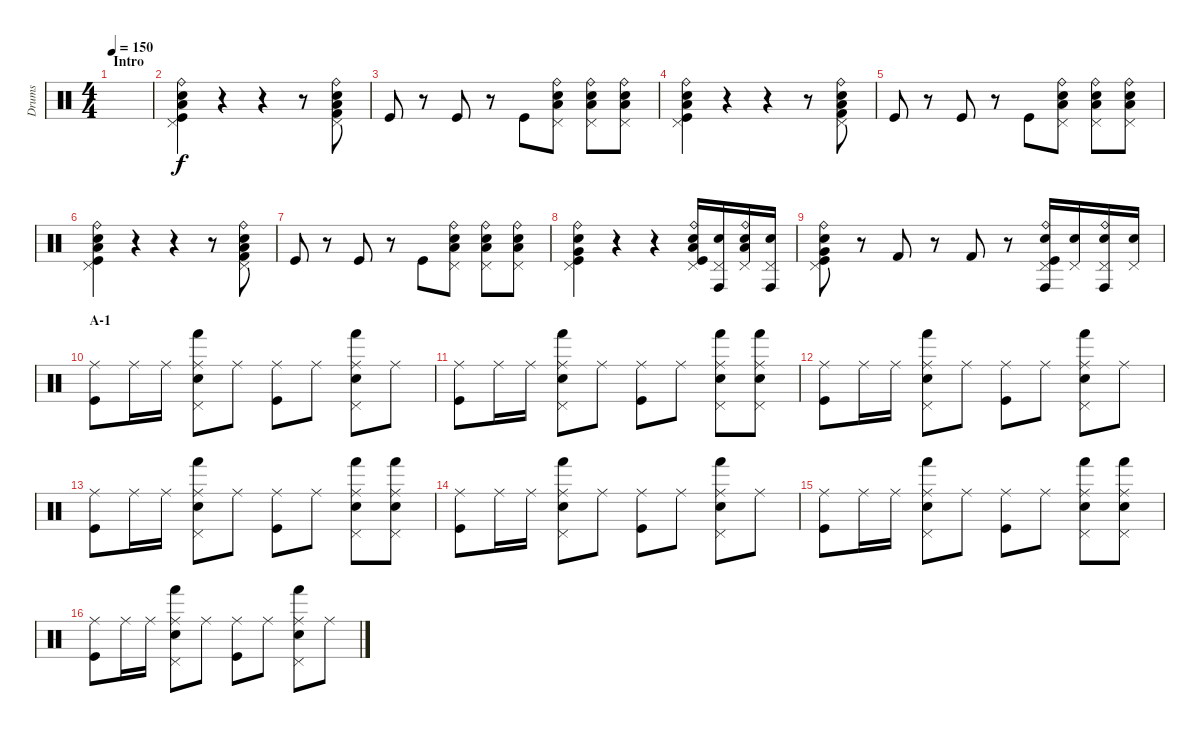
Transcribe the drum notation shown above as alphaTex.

\track ("Drums" "Drums") {instrument percussion}
\staff {score}
\articulation defaults
\ts (4 4)
\section ("" "Intro")
\tempo 150
\clef neutral
\ks c
|
("Ride (bell)" "Pedal Hi-Hat (hit)" "Low Floor Tom (hit)" "Electric Snare (hit)" "Kick (hit)").4 r.4 r.4 r.8 ("Ride (bell)" "Pedal Hi-Hat (hit)" "Low Floor Tom (hit)" "Electric Snare (hit)" "Kick (hit) 2").8 |
"Kick (hit)".8 r.8 "Kick (hit)".8 r.8 "Kick (hit)".8 ("Ride (bell)" "Pedal Hi-Hat (hit)" "Low Floor Tom (hit)" "Electric Snare (hit)").8 ("Ride (bell)" "Pedal Hi-Hat (hit)" "Low Floor Tom (hit)" "Electric Snare (hit)").8 ("Ride (bell)" "Pedal Hi-Hat (hit)" "Low Floor Tom (hit)" "Electric Snare (hit)").8 |
("Ride (bell)" "Pedal Hi-Hat (hit)" "Low Floor Tom (hit)" "Electric Snare (hit)" "Kick (hit)").4 r.4 r.4 r.8 ("Ride (bell)" "Pedal Hi-Hat (hit)" "Low Floor Tom (hit)" "Electric Snare (hit)" "Kick (hit) 2").8 |
"Kick (hit)".8 r.8 "Kick (hit)".8 r.8 "Kick (hit)".8 ("Ride (bell)" "Pedal Hi-Hat (hit)" "Low Floor Tom (hit)" "Electric Snare (hit)").8 ("Ride (bell)" "Pedal Hi-Hat (hit)" "Low Floor Tom (hit)" "Electric Snare (hit)").8 ("Ride (bell)" "Pedal Hi-Hat (hit)" "Low Floor Tom (hit)" "Electric Snare (hit)").8 |
("Ride (bell)" "Pedal Hi-Hat (hit)" "Low Floor Tom (hit)" "Electric Snare (hit)" "Kick (hit)").4 r.4 r.4 r.8 ("Ride (bell)" "Pedal Hi-Hat (hit)" "Low Floor Tom (hit)" "Electric Snare (hit)" "Kick (hit) 2").8 |
"Kick (hit)".8 r.8 "Kick (hit)".8 r.8 "Kick (hit)".8 ("Ride (bell)" "Pedal Hi-Hat (hit)" "Low Floor Tom (hit)" "Electric Snare (hit)").8 ("Ride (bell)" "Pedal Hi-Hat (hit)" "Low Floor Tom (hit)" "Electric Snare (hit)").8 ("Ride (bell)" "Pedal Hi-Hat (hit)" "Low Floor Tom (hit)" "Electric Snare (hit)").8 |
("Ride (bell)" "Pedal Hi-Hat (hit)" "Very Low Tom (hit)" "Electric Snare (hit)" "Kick (hit)").4 r.4 r.4 ("Ride (bell)" "Pedal Hi-Hat (hit)" "Low Floor Tom (hit)" "Electric Snare (hit)" "Kick (hit)").16 ("Pedal Hi-Hat (hit)" "Conga high (hit)" "Electric Snare (hit)").16 ("Ride (bell)" "Pedal Hi-Hat (hit)" "Low Floor Tom (hit)" "Electric Snare (hit)").16 ("Pedal Hi-Hat (hit)" "Conga high (hit)" "Electric Snare (hit)").16 |
("Ride (bell)" "Pedal Hi-Hat (hit)" "Very Low Tom (hit)" "Electric Snare (hit)" "Kick (hit)").8 r.8 "Kick (hit) 2".8 r.8 "Kick (hit) 2".8 r.8 ("Ride (bell)" "Pedal Hi-Hat (hit)" "Conga high (hit)" "Electric Snare (hit)" "Kick (hit)").16 ("Pedal Hi-Hat (hit)" "Electric Snare (hit)").16 ("Ride (bell)" "Pedal Hi-Hat (hit)" "Conga high (hit)" "Electric Snare (hit)").16 ("Pedal Hi-Hat (hit)" "Electric Snare (hit)").16 |
\section ("" "A-1")
("Ride (middle)" "Kick (hit)").8 "Ride (middle)".16 "Ride (middle)".16 ("Ride (middle)" "Pedal Hi-Hat (hit)" "Hand (hit)" "Electric Snare (hit)").8 "Ride (middle)".8 ("Ride (middle)" "Kick (hit)").8 "Ride (middle)".8 ("Ride (middle)" "Pedal Hi-Hat (hit)" "Hand (hit)" "Electric Snare (hit)").8 "Ride (middle)".8 |
("Ride (middle)" "Kick (hit)").8 "Ride (middle)".16 "Ride (middle)".16 ("Ride (middle)" "Pedal Hi-Hat (hit)" "Hand (hit)" "Electric Snare (hit)").8 "Ride (middle)".8 ("Ride (middle)" "Kick (hit)").8 "Ride (middle)".8 ("Ride (middle)" "Pedal Hi-Hat (hit)" "Hand (hit)" "Electric Snare (hit)").8 ("Ride (middle)" "Pedal Hi-Hat (hit)" "Hand (hit)" "Electric Snare (hit)").8 |
("Ride (middle)" "Kick (hit)").8 "Ride (middle)".16 "Ride (middle)".16 ("Ride (middle)" "Pedal Hi-Hat (hit)" "Hand (hit)" "Electric Snare (hit)").8 "Ride (middle)".8 ("Ride (middle)" "Kick (hit)").8 "Ride (middle)".8 ("Ride (middle)" "Pedal Hi-Hat (hit)" "Hand (hit)" "Electric Snare (hit)").8 "Ride (middle)".8 |
("Ride (middle)" "Kick (hit)").8 "Ride (middle)".16 "Ride (middle)".16 ("Ride (middle)" "Pedal Hi-Hat (hit)" "Hand (hit)" "Electric Snare (hit)").8 "Ride (middle)".8 ("Ride (middle)" "Kick (hit)").8 "Ride (middle)".8 ("Ride (middle)" "Pedal Hi-Hat (hit)" "Hand (hit)" "Electric Snare (hit)").8 ("Ride (middle)" "Pedal Hi-Hat (hit)" "Hand (hit)" "Electric Snare (hit)").8 |
("Ride (middle)" "Kick (hit)").8 "Ride (middle)".16 "Ride (middle)".16 ("Ride (middle)" "Pedal Hi-Hat (hit)" "Hand (hit)" "Electric Snare (hit)").8 "Ride (middle)".8 ("Ride (middle)" "Kick (hit)").8 "Ride (middle)".8 ("Ride (middle)" "Pedal Hi-Hat (hit)" "Hand (hit)" "Electric Snare (hit)").8 "Ride (middle)".8 |
("Ride (middle)" "Kick (hit)").8 "Ride (middle)".16 "Ride (middle)".16 ("Ride (middle)" "Pedal Hi-Hat (hit)" "Hand (hit)" "Electric Snare (hit)").8 "Ride (middle)".8 ("Ride (middle)" "Kick (hit)").8 "Ride (middle)".8 ("Ride (middle)" "Pedal Hi-Hat (hit)" "Hand (hit)" "Electric Snare (hit)").8 ("Ride (middle)" "Pedal Hi-Hat (hit)" "Hand (hit)" "Electric Snare (hit)").8 |
("Ride (middle)" "Kick (hit)").8 "Ride (middle)".16 "Ride (middle)".16 ("Ride (middle)" "Pedal Hi-Hat (hit)" "Hand (hit)" "Electric Snare (hit)").8 "Ride (middle)".8 ("Ride (middle)" "Kick (hit)").8 "Ride (middle)".8 ("Ride (middle)" "Pedal Hi-Hat (hit)" "Hand (hit)" "Electric Snare (hit)").8 "Ride (middle)".8
